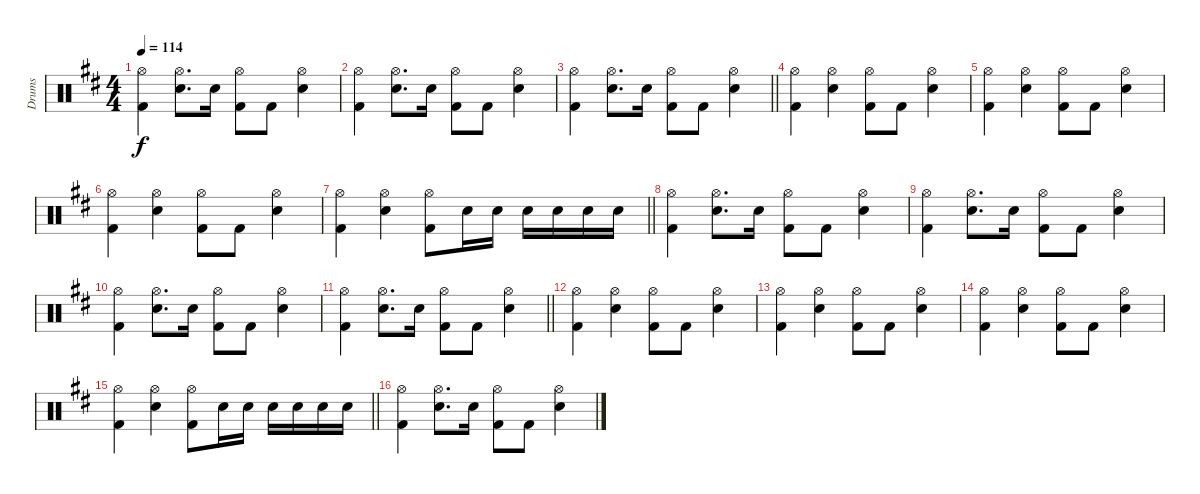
\track ("Drums" "Drums") {instrument percussion}
\staff {score}
\articulation defaults
\ts (4 4)
\tempo 114
\clef neutral
\ks bminor
("Hi-Hat (open)" "Kick (hit) 2").4{dy f} ("Hi-Hat (open)" "Snare (hit) 2").8{d} "Snare (hit) 2".16 ("Hi-Hat (open)" "Kick (hit) 2").8 "Kick (hit) 2".8 ("Hi-Hat (open)" "Snare (hit) 2").4 |
("Hi-Hat (open)" "Kick (hit) 2").4 ("Hi-Hat (open)" "Snare (hit) 2").8{d} "Snare (hit) 2".16 ("Hi-Hat (open)" "Kick (hit) 2").8 "Kick (hit) 2".8 ("Hi-Hat (open)" "Snare (hit) 2").4 |
\barLineRight lightlight
("Hi-Hat (open)" "Kick (hit) 2").4 ("Hi-Hat (open)" "Snare (hit) 2").8{d} "Snare (hit) 2".16 ("Hi-Hat (open)" "Kick (hit) 2").8 "Kick (hit) 2".8 ("Hi-Hat (open)" "Snare (hit) 2").4 |
("Hi-Hat (open)" "Kick (hit) 2").4 ("Hi-Hat (open)" "Snare (hit) 2").4 ("Hi-Hat (open)" "Kick (hit) 2").8 "Kick (hit) 2".8 ("Hi-Hat (open)" "Snare (hit) 2").4 |
("Hi-Hat (open)" "Kick (hit) 2").4 ("Hi-Hat (open)" "Snare (hit) 2").4 ("Hi-Hat (open)" "Kick (hit) 2").8 "Kick (hit) 2".8 ("Hi-Hat (open)" "Snare (hit) 2").4 |
("Hi-Hat (open)" "Kick (hit) 2").4 ("Hi-Hat (open)" "Snare (hit) 2").4 ("Hi-Hat (open)" "Kick (hit) 2").8 "Kick (hit) 2".8 ("Hi-Hat (open)" "Snare (hit) 2").4 |
\barLineRight lightlight
("Hi-Hat (open)" "Kick (hit) 2").4 ("Hi-Hat (open)" "Snare (hit) 2").4 ("Hi-Hat (open)" "Kick (hit) 2").8 "Snare (hit) 2".16 "Snare (hit) 2".16 "Snare (hit) 2".16 "Snare (hit) 2".16 "Snare (hit) 2".16 "Snare (hit) 2".16 |
("Hi-Hat (open)" "Kick (hit) 2").4 ("Hi-Hat (open)" "Snare (hit) 2").8{d} "Snare (hit) 2".16 ("Hi-Hat (open)" "Kick (hit) 2").8 "Kick (hit) 2".8 ("Hi-Hat (open)" "Snare (hit) 2").4 |
("Hi-Hat (open)" "Kick (hit) 2").4 ("Hi-Hat (open)" "Snare (hit) 2").8{d} "Snare (hit) 2".16 ("Hi-Hat (open)" "Kick (hit) 2").8 "Kick (hit) 2".8 ("Hi-Hat (open)" "Snare (hit) 2").4 |
("Hi-Hat (open)" "Kick (hit) 2").4 ("Hi-Hat (open)" "Snare (hit) 2").8{d} "Snare (hit) 2".16 ("Hi-Hat (open)" "Kick (hit) 2").8 "Kick (hit) 2".8 ("Hi-Hat (open)" "Snare (hit) 2").4 |
\barLineRight lightlight
("Hi-Hat (open)" "Kick (hit) 2").4 ("Hi-Hat (open)" "Snare (hit) 2").8{d} "Snare (hit) 2".16 ("Hi-Hat (open)" "Kick (hit) 2").8 "Kick (hit) 2".8 ("Hi-Hat (open)" "Snare (hit) 2").4 |
("Hi-Hat (open)" "Kick (hit) 2").4 ("Hi-Hat (open)" "Snare (hit) 2").4 ("Hi-Hat (open)" "Kick (hit) 2").8 "Kick (hit) 2".8 ("Hi-Hat (open)" "Snare (hit) 2").4 |
("Hi-Hat (open)" "Kick (hit) 2").4 ("Hi-Hat (open)" "Snare (hit) 2").4 ("Hi-Hat (open)" "Kick (hit) 2").8 "Kick (hit) 2".8 ("Hi-Hat (open)" "Snare (hit) 2").4 |
("Hi-Hat (open)" "Kick (hit) 2").4 ("Hi-Hat (open)" "Snare (hit) 2").4 ("Hi-Hat (open)" "Kick (hit) 2").8 "Kick (hit) 2".8 ("Hi-Hat (open)" "Snare (hit) 2").4 |
\barLineRight lightlight
("Hi-Hat (open)" "Kick (hit) 2").4 ("Hi-Hat (open)" "Snare (hit) 2").4 ("Hi-Hat (open)" "Kick (hit) 2").8 "Snare (hit) 2".16 "Snare (hit) 2".16 "Snare (hit) 2".16 "Snare (hit) 2".16 "Snare (hit) 2".16 "Snare (hit) 2".16 |
("Hi-Hat (open)" "Kick (hit) 2").4 ("Hi-Hat (open)" "Snare (hit) 2").8{d} "Snare (hit) 2".16 ("Hi-Hat (open)" "Kick (hit) 2").8 "Kick (hit) 2".8 ("Hi-Hat (open)" "Snare (hit) 2").4
